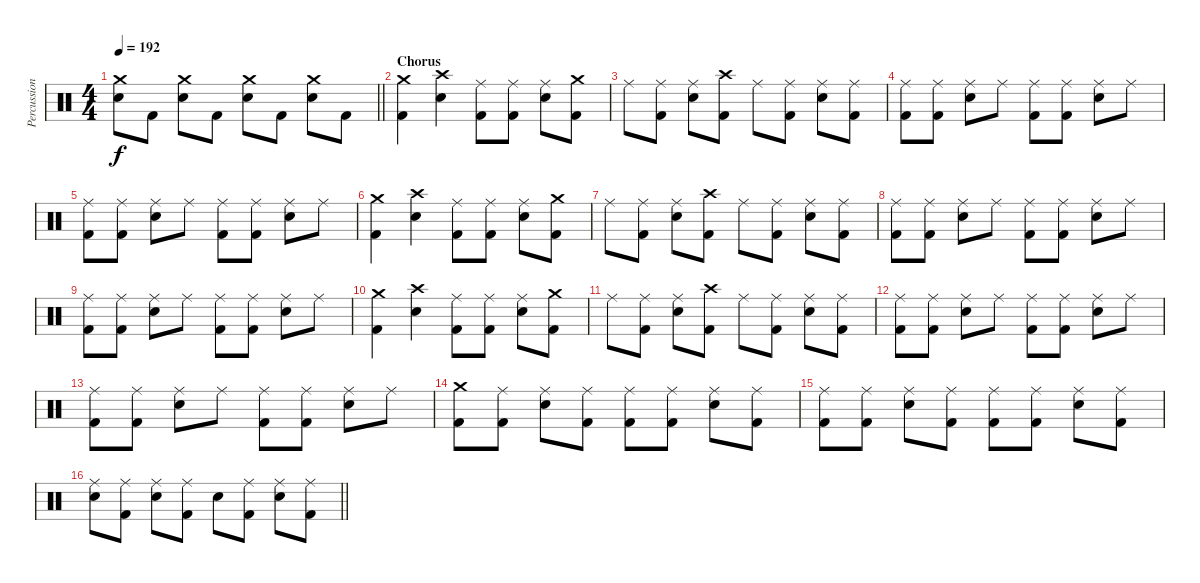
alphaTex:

\track ("Percussion" "Percussion") {instrument percussion}
\staff {score}
\articulation defaults
\ts (4 4)
\tempo 192
\clef neutral
\barLineRight lightlight
\ks c
("Crash medium (hit)" "Electric Snare (hit)").8{dy f} "Kick (hit) 2".8 ("Crash medium (hit)" "Electric Snare (hit)").8 "Kick (hit) 2".8 ("Crash medium (hit)" "Electric Snare (hit)").8 "Kick (hit) 2".8 ("Crash medium (hit)" "Electric Snare (hit)").8 "Kick (hit) 2".8 |
\section ("" "Chorus")
("Crash medium (hit)" "Kick (hit) 2").4 ("Crash high (hit)" "Electric Snare (hit)").4 ("Ride (middle)" "Kick (hit) 2").8 ("Ride (middle)" "Kick (hit) 2").8 ("Ride (middle)" "Electric Snare (hit)").8 ("Crash medium (hit)" "Kick (hit) 2").8 |
"Ride (middle)".8 ("Ride (middle)" "Kick (hit) 2").8 ("Ride (middle)" "Electric Snare (hit)").8 ("Crash high (hit)" "Kick (hit) 2").8 "Ride (middle)".8 ("Ride (middle)" "Kick (hit) 2").8 ("Ride (middle)" "Electric Snare (hit)").8 ("Ride (middle)" "Kick (hit) 2").8 |
("Ride (middle)" "Kick (hit) 2").8 ("Ride (middle)" "Kick (hit) 2").8 ("Ride (middle)" "Electric Snare (hit)").8 "Ride (middle)".8 ("Ride (middle)" "Kick (hit) 2").8 ("Ride (middle)" "Kick (hit) 2").8 ("Ride (middle)" "Electric Snare (hit)").8 "Ride (middle)".8 |
("Ride (middle)" "Kick (hit) 2").8 ("Ride (middle)" "Kick (hit) 2").8 ("Ride (middle)" "Electric Snare (hit)").8 "Ride (middle)".8 ("Ride (middle)" "Kick (hit) 2").8 ("Ride (middle)" "Kick (hit) 2").8 ("Ride (middle)" "Electric Snare (hit)").8 "Ride (middle)".8 |
("Crash medium (hit)" "Kick (hit) 2").4 ("Crash high (hit)" "Electric Snare (hit)").4 ("Ride (middle)" "Kick (hit) 2").8 ("Ride (middle)" "Kick (hit) 2").8 ("Ride (middle)" "Electric Snare (hit)").8 ("Crash medium (hit)" "Kick (hit) 2").8 |
"Ride (middle)".8 ("Ride (middle)" "Kick (hit) 2").8 ("Ride (middle)" "Electric Snare (hit)").8 ("Crash high (hit)" "Kick (hit) 2").8 "Ride (middle)".8 ("Ride (middle)" "Kick (hit) 2").8 ("Ride (middle)" "Electric Snare (hit)").8 ("Ride (middle)" "Kick (hit) 2").8 |
("Ride (middle)" "Kick (hit) 2").8 ("Ride (middle)" "Kick (hit) 2").8 ("Ride (middle)" "Electric Snare (hit)").8 "Ride (middle)".8 ("Ride (middle)" "Kick (hit) 2").8 ("Ride (middle)" "Kick (hit) 2").8 ("Ride (middle)" "Electric Snare (hit)").8 "Ride (middle)".8 |
("Ride (middle)" "Kick (hit) 2").8 ("Ride (middle)" "Kick (hit) 2").8 ("Ride (middle)" "Electric Snare (hit)").8 "Ride (middle)".8 ("Ride (middle)" "Kick (hit) 2").8 ("Ride (middle)" "Kick (hit) 2").8 ("Ride (middle)" "Electric Snare (hit)").8 "Ride (middle)".8 |
("Crash medium (hit)" "Kick (hit) 2").4 ("Crash high (hit)" "Electric Snare (hit)").4 ("Ride (middle)" "Kick (hit) 2").8 ("Ride (middle)" "Kick (hit) 2").8 ("Ride (middle)" "Electric Snare (hit)").8 ("Crash medium (hit)" "Kick (hit) 2").8 |
"Ride (middle)".8 ("Ride (middle)" "Kick (hit) 2").8 ("Ride (middle)" "Electric Snare (hit)").8 ("Crash high (hit)" "Kick (hit) 2").8 "Ride (middle)".8 ("Ride (middle)" "Kick (hit) 2").8 ("Ride (middle)" "Electric Snare (hit)").8 ("Ride (middle)" "Kick (hit) 2").8 |
("Ride (middle)" "Kick (hit) 2").8 ("Ride (middle)" "Kick (hit) 2").8 ("Ride (middle)" "Electric Snare (hit)").8 "Ride (middle)".8 ("Ride (middle)" "Kick (hit) 2").8 ("Ride (middle)" "Kick (hit) 2").8 ("Ride (middle)" "Electric Snare (hit)").8 "Ride (middle)".8 |
("Ride (middle)" "Kick (hit) 2").8 ("Ride (middle)" "Kick (hit) 2").8 ("Ride (middle)" "Electric Snare (hit)").8 "Ride (middle)".8 ("Ride (middle)" "Kick (hit) 2").8 ("Ride (middle)" "Kick (hit) 2").8 ("Ride (middle)" "Electric Snare (hit)").8 "Ride (middle)".8 |
("Crash medium (hit)" "Kick (hit) 2").8 ("Ride (middle)" "Kick (hit) 2").8 ("Ride (middle)" "Electric Snare (hit)").8 ("Ride (middle)" "Kick (hit) 2").8 ("Ride (middle)" "Kick (hit) 2").8 ("Ride (middle)" "Kick (hit) 2").8 ("Ride (middle)" "Electric Snare (hit)").8 ("Ride (middle)" "Kick (hit) 2").8 |
("Ride (middle)" "Kick (hit) 2").8 ("Ride (middle)" "Kick (hit) 2").8 ("Ride (middle)" "Electric Snare (hit)").8 ("Ride (middle)" "Kick (hit) 2").8 ("Ride (middle)" "Kick (hit) 2").8 ("Ride (middle)" "Kick (hit) 2").8 ("Ride (middle)" "Electric Snare (hit)").8 ("Ride (middle)" "Kick (hit) 2").8 |
\barLineRight lightlight
("Ride (middle)" "Electric Snare (hit)").8 ("Ride (middle)" "Kick (hit) 2").8 ("Ride (middle)" "Electric Snare (hit)").8 ("Ride (middle)" "Kick (hit) 2").8 "Electric Snare (hit)".8 ("Ride (middle)" "Kick (hit) 2").8 ("Ride (middle)" "Electric Snare (hit)").8 ("Ride (middle)" "Kick (hit) 2").8
